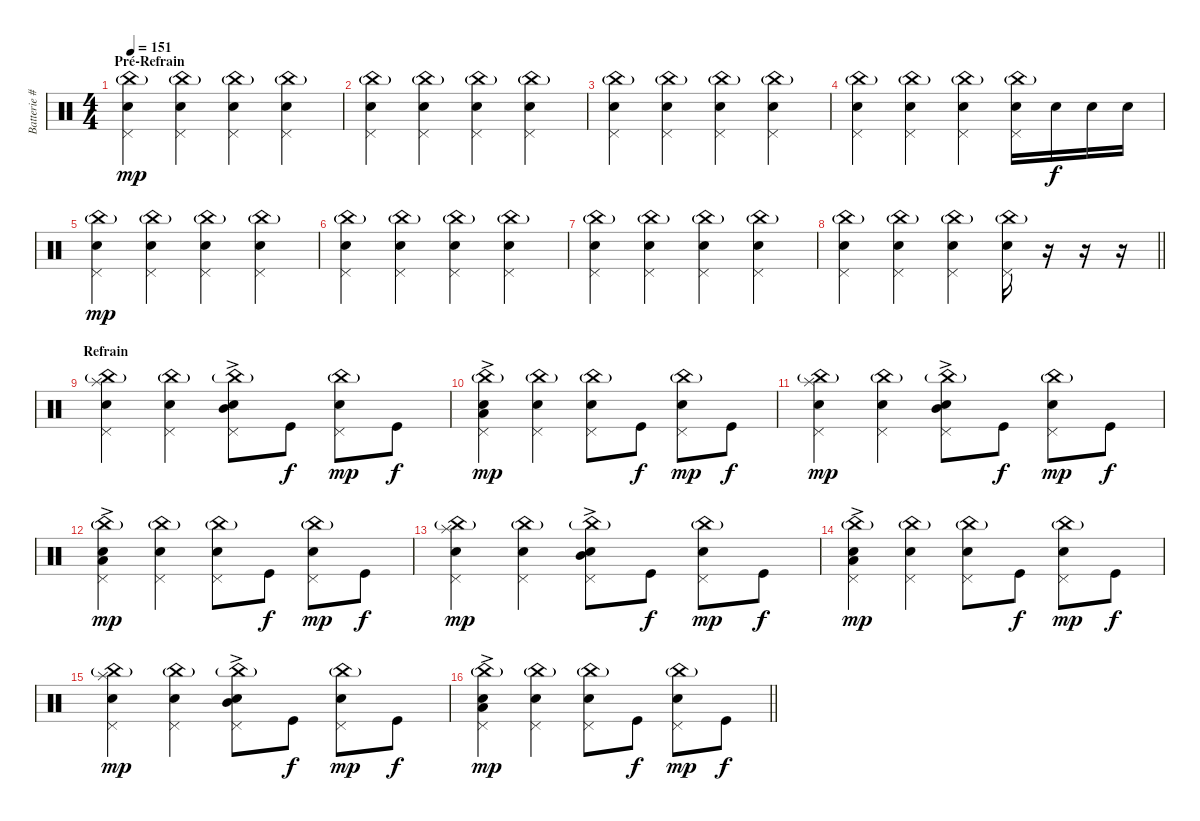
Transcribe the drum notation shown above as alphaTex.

\track ("Batterie # S.Hewitt" "Batterie #") {instrument percussion}
\staff {score}
\articulation defaults
\ts (4 4)
\section ("" "Pré-Refrain")
\tempo 151
\clef neutral
\ks c
("China (hit)"{g} "Electric Snare (hit)" "Pedal Hi-Hat (hit)").4{dy mp} ("China (hit)"{g} "Electric Snare (hit)" "Pedal Hi-Hat (hit)").4 ("China (hit)"{g} "Electric Snare (hit)" "Pedal Hi-Hat (hit)").4 ("China (hit)"{g} "Electric Snare (hit)" "Pedal Hi-Hat (hit)").4 |
("China (hit)"{g} "Electric Snare (hit)" "Pedal Hi-Hat (hit)").4 ("China (hit)"{g} "Electric Snare (hit)" "Pedal Hi-Hat (hit)").4 ("China (hit)"{g} "Electric Snare (hit)" "Pedal Hi-Hat (hit)").4 ("China (hit)"{g} "Electric Snare (hit)" "Pedal Hi-Hat (hit)").4 |
("China (hit)"{g} "Electric Snare (hit)" "Pedal Hi-Hat (hit)").4 ("China (hit)"{g} "Electric Snare (hit)" "Pedal Hi-Hat (hit)").4 ("China (hit)"{g} "Electric Snare (hit)" "Pedal Hi-Hat (hit)").4 ("China (hit)"{g} "Electric Snare (hit)" "Pedal Hi-Hat (hit)").4 |
("China (hit)"{g} "Electric Snare (hit)" "Pedal Hi-Hat (hit)").4 ("China (hit)"{g} "Electric Snare (hit)" "Pedal Hi-Hat (hit)").4 ("China (hit)"{g} "Electric Snare (hit)" "Pedal Hi-Hat (hit)").4 ("China (hit)"{g} "Electric Snare (hit)" "Pedal Hi-Hat (hit)").16 "Electric Snare (hit)".16{dy f} "Electric Snare (hit)".16 "Electric Snare (hit)".16 |
("China (hit)"{g} "Electric Snare (hit)" "Pedal Hi-Hat (hit)").4{dy mp} ("China (hit)"{g} "Electric Snare (hit)" "Pedal Hi-Hat (hit)").4 ("China (hit)"{g} "Electric Snare (hit)" "Pedal Hi-Hat (hit)").4 ("China (hit)"{g} "Electric Snare (hit)" "Pedal Hi-Hat (hit)").4 |
("China (hit)"{g} "Electric Snare (hit)" "Pedal Hi-Hat (hit)").4 ("China (hit)"{g} "Electric Snare (hit)" "Pedal Hi-Hat (hit)").4 ("China (hit)"{g} "Electric Snare (hit)" "Pedal Hi-Hat (hit)").4 ("China (hit)"{g} "Electric Snare (hit)" "Pedal Hi-Hat (hit)").4 |
("China (hit)"{g} "Electric Snare (hit)" "Pedal Hi-Hat (hit)").4 ("China (hit)"{g} "Electric Snare (hit)" "Pedal Hi-Hat (hit)").4 ("China (hit)"{g} "Electric Snare (hit)" "Pedal Hi-Hat (hit)").4 ("China (hit)"{g} "Electric Snare (hit)" "Pedal Hi-Hat (hit)").4 |
\barLineRight lightlight
("China (hit)"{g} "Electric Snare (hit)" "Pedal Hi-Hat (hit)").4 ("China (hit)"{g} "Electric Snare (hit)" "Pedal Hi-Hat (hit)").4 ("China (hit)"{g} "Electric Snare (hit)" "Pedal Hi-Hat (hit)").4 ("China (hit)"{g} "Electric Snare (hit)" "Pedal Hi-Hat (hit)").16 r.16 r.16 r.16 |
\section ("" "Refrain")
("Splash (hit)" "China (hit)"{g} "Electric Snare (hit)" "Pedal Hi-Hat (hit)").4 ("China (hit)"{g} "Electric Snare (hit)" "Pedal Hi-Hat (hit)").4 ("Mid Tom (hit)"{ac} "China (hit)"{g} "Electric Snare (hit)" "Pedal Hi-Hat (hit)").8 "Kick (hit)".8{dy f} ("China (hit)"{g} "Electric Snare (hit)" "Pedal Hi-Hat (hit)").8{dy mp} "Kick (hit)".8{dy f} |
("Low Tom (hit)"{ac} "China (hit)"{g} "Electric Snare (hit)" "Pedal Hi-Hat (hit)").4{dy mp} ("China (hit)"{g} "Electric Snare (hit)" "Pedal Hi-Hat (hit)").4 ("China (hit)"{g} "Electric Snare (hit)" "Pedal Hi-Hat (hit)").8 "Kick (hit)".8{dy f} ("China (hit)"{g} "Electric Snare (hit)" "Pedal Hi-Hat (hit)").8{dy mp} "Kick (hit)".8{dy f} |
("Splash (hit)" "China (hit)"{g} "Electric Snare (hit)" "Pedal Hi-Hat (hit)").4{dy mp} ("China (hit)"{g} "Electric Snare (hit)" "Pedal Hi-Hat (hit)").4 ("Mid Tom (hit)"{ac} "China (hit)"{g} "Electric Snare (hit)" "Pedal Hi-Hat (hit)").8 "Kick (hit)".8{dy f} ("China (hit)"{g} "Electric Snare (hit)" "Pedal Hi-Hat (hit)").8{dy mp} "Kick (hit)".8{dy f} |
("Low Tom (hit)"{ac} "China (hit)"{g} "Electric Snare (hit)" "Pedal Hi-Hat (hit)").4{dy mp} ("China (hit)"{g} "Electric Snare (hit)" "Pedal Hi-Hat (hit)").4 ("China (hit)"{g} "Electric Snare (hit)" "Pedal Hi-Hat (hit)").8 "Kick (hit)".8{dy f} ("China (hit)"{g} "Electric Snare (hit)" "Pedal Hi-Hat (hit)").8{dy mp} "Kick (hit)".8{dy f} |
("Splash (hit)" "China (hit)"{g} "Electric Snare (hit)" "Pedal Hi-Hat (hit)").4{dy mp} ("China (hit)"{g} "Electric Snare (hit)" "Pedal Hi-Hat (hit)").4 ("Mid Tom (hit)"{ac} "China (hit)"{g} "Electric Snare (hit)" "Pedal Hi-Hat (hit)").8 "Kick (hit)".8{dy f} ("China (hit)"{g} "Electric Snare (hit)" "Pedal Hi-Hat (hit)").8{dy mp} "Kick (hit)".8{dy f} |
("Low Tom (hit)"{ac} "China (hit)"{g} "Electric Snare (hit)" "Pedal Hi-Hat (hit)").4{dy mp} ("China (hit)"{g} "Electric Snare (hit)" "Pedal Hi-Hat (hit)").4 ("China (hit)"{g} "Electric Snare (hit)" "Pedal Hi-Hat (hit)").8 "Kick (hit)".8{dy f} ("China (hit)"{g} "Electric Snare (hit)" "Pedal Hi-Hat (hit)").8{dy mp} "Kick (hit)".8{dy f} |
("Splash (hit)" "China (hit)"{g} "Electric Snare (hit)" "Pedal Hi-Hat (hit)").4{dy mp} ("China (hit)"{g} "Electric Snare (hit)" "Pedal Hi-Hat (hit)").4 ("Mid Tom (hit)"{ac} "China (hit)"{g} "Electric Snare (hit)" "Pedal Hi-Hat (hit)").8 "Kick (hit)".8{dy f} ("China (hit)"{g} "Electric Snare (hit)" "Pedal Hi-Hat (hit)").8{dy mp} "Kick (hit)".8{dy f} |
\barLineRight lightlight
("Low Tom (hit)"{ac} "China (hit)"{g} "Electric Snare (hit)" "Pedal Hi-Hat (hit)").4{dy mp} ("China (hit)"{g} "Electric Snare (hit)" "Pedal Hi-Hat (hit)").4 ("China (hit)"{g} "Electric Snare (hit)" "Pedal Hi-Hat (hit)").8 "Kick (hit)".8{dy f} ("China (hit)"{g} "Electric Snare (hit)" "Pedal Hi-Hat (hit)").8{dy mp} "Kick (hit)".8{dy f}
